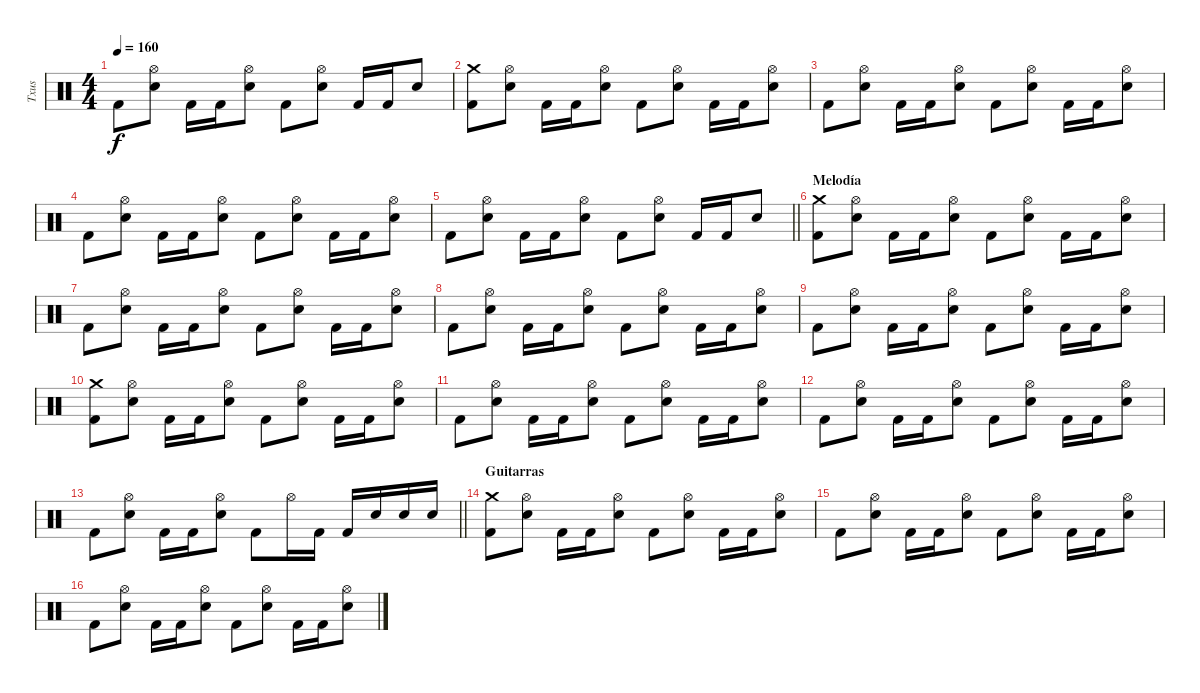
\track ("Txus" "Txus") {instrument percussion}
\staff {score}
\articulation defaults
\ts (4 4)
\tempo 160
\clef neutral
\ks c "Kick (hit) 2".8{dy f}
("Hi-Hat (open)" "Snare (hit) 2").8 "Kick (hit) 2".16 "Kick (hit) 2".16 ("Hi-Hat (open)" "Snare (hit) 2").8 "Kick (hit) 2".8 ("Hi-Hat (open)" "Snare (hit) 2").8 "Kick (hit) 2".16 "Kick (hit) 2".16 "Snare (hit) 2".8 |
("Crash medium (hit)" "Kick (hit) 2").8 ("Hi-Hat (open)" "Snare (hit) 2").8 "Kick (hit) 2".16 "Kick (hit) 2".16 ("Hi-Hat (open)" "Snare (hit) 2").8 "Kick (hit) 2".8 ("Hi-Hat (open)" "Snare (hit) 2").8 "Kick (hit) 2".16 "Kick (hit) 2".16 ("Hi-Hat (open)" "Snare (hit) 2").8 |
"Kick (hit) 2".8 ("Hi-Hat (open)" "Snare (hit) 2").8 "Kick (hit) 2".16 "Kick (hit) 2".16 ("Hi-Hat (open)" "Snare (hit) 2").8 "Kick (hit) 2".8 ("Hi-Hat (open)" "Snare (hit) 2").8 "Kick (hit) 2".16 "Kick (hit) 2".16 ("Hi-Hat (open)" "Snare (hit) 2").8 |
"Kick (hit) 2".8 ("Hi-Hat (open)" "Snare (hit) 2").8 "Kick (hit) 2".16 "Kick (hit) 2".16 ("Hi-Hat (open)" "Snare (hit) 2").8 "Kick (hit) 2".8 ("Hi-Hat (open)" "Snare (hit) 2").8 "Kick (hit) 2".16 "Kick (hit) 2".16 ("Hi-Hat (open)" "Snare (hit) 2").8 |
\barLineRight lightlight "Kick (hit) 2".8
("Hi-Hat (open)" "Snare (hit) 2").8 "Kick (hit) 2".16 "Kick (hit) 2".16 ("Hi-Hat (open)" "Snare (hit) 2").8 "Kick (hit) 2".8 ("Hi-Hat (open)" "Snare (hit) 2").8 "Kick (hit) 2".16 "Kick (hit) 2".16 "Snare (hit) 2".8 |
\section ("" "Melodía")
("Crash medium (hit)" "Kick (hit) 2").8 ("Hi-Hat (open)" "Snare (hit) 2").8 "Kick (hit) 2".16 "Kick (hit) 2".16 ("Hi-Hat (open)" "Snare (hit) 2").8 "Kick (hit) 2".8 ("Hi-Hat (open)" "Snare (hit) 2").8 "Kick (hit) 2".16 "Kick (hit) 2".16 ("Hi-Hat (open)" "Snare (hit) 2").8 |
"Kick (hit) 2".8 ("Hi-Hat (open)" "Snare (hit) 2").8 "Kick (hit) 2".16 "Kick (hit) 2".16 ("Hi-Hat (open)" "Snare (hit) 2").8 "Kick (hit) 2".8 ("Hi-Hat (open)" "Snare (hit) 2").8 "Kick (hit) 2".16 "Kick (hit) 2".16 ("Hi-Hat (open)" "Snare (hit) 2").8 |
"Kick (hit) 2".8 ("Hi-Hat (open)" "Snare (hit) 2").8 "Kick (hit) 2".16 "Kick (hit) 2".16 ("Hi-Hat (open)" "Snare (hit) 2").8 "Kick (hit) 2".8 ("Hi-Hat (open)" "Snare (hit) 2").8 "Kick (hit) 2".16 "Kick (hit) 2".16 ("Hi-Hat (open)" "Snare (hit) 2").8 |
"Kick (hit) 2".8 ("Hi-Hat (open)" "Snare (hit) 2").8 "Kick (hit) 2".16 "Kick (hit) 2".16 ("Hi-Hat (open)" "Snare (hit) 2").8 "Kick (hit) 2".8 ("Hi-Hat (open)" "Snare (hit) 2").8 "Kick (hit) 2".16 "Kick (hit) 2".16 ("Hi-Hat (open)" "Snare (hit) 2").8 |
("Crash medium (hit)" "Kick (hit) 2").8 ("Hi-Hat (open)" "Snare (hit) 2").8 "Kick (hit) 2".16 "Kick (hit) 2".16 ("Hi-Hat (open)" "Snare (hit) 2").8 "Kick (hit) 2".8 ("Hi-Hat (open)" "Snare (hit) 2").8 "Kick (hit) 2".16 "Kick (hit) 2".16 ("Hi-Hat (open)" "Snare (hit) 2").8 |
"Kick (hit) 2".8 ("Hi-Hat (open)" "Snare (hit) 2").8 "Kick (hit) 2".16 "Kick (hit) 2".16 ("Hi-Hat (open)" "Snare (hit) 2").8 "Kick (hit) 2".8 ("Hi-Hat (open)" "Snare (hit) 2").8 "Kick (hit) 2".16 "Kick (hit) 2".16 ("Hi-Hat (open)" "Snare (hit) 2").8 |
"Kick (hit) 2".8 ("Hi-Hat (open)" "Snare (hit) 2").8 "Kick (hit) 2".16 "Kick (hit) 2".16 ("Hi-Hat (open)" "Snare (hit) 2").8 "Kick (hit) 2".8 ("Hi-Hat (open)" "Snare (hit) 2").8 "Kick (hit) 2".16 "Kick (hit) 2".16 ("Hi-Hat (open)" "Snare (hit) 2").8 |
\barLineRight lightlight "Kick (hit) 2".8
("Hi-Hat (open)" "Snare (hit) 2").8 "Kick (hit) 2".16 "Kick (hit) 2".16 ("Hi-Hat (open)" "Snare (hit) 2").8 "Kick (hit) 2".8 "Hi-Hat (open)".16 "Kick (hit) 2".16 "Kick (hit) 2".16 "Snare (hit) 2".16 "Snare (hit) 2".16 "Snare (hit) 2".16 |
\section ("" "Guitarras")
("Crash medium (hit)" "Kick (hit) 2").8 ("Hi-Hat (open)" "Snare (hit) 2").8 "Kick (hit) 2".16 "Kick (hit) 2".16 ("Hi-Hat (open)" "Snare (hit) 2").8 "Kick (hit) 2".8 ("Hi-Hat (open)" "Snare (hit) 2").8 "Kick (hit) 2".16 "Kick (hit) 2".16 ("Hi-Hat (open)" "Snare (hit) 2").8 |
"Kick (hit) 2".8 ("Hi-Hat (open)" "Snare (hit) 2").8 "Kick (hit) 2".16 "Kick (hit) 2".16 ("Hi-Hat (open)" "Snare (hit) 2").8 "Kick (hit) 2".8 ("Hi-Hat (open)" "Snare (hit) 2").8 "Kick (hit) 2".16 "Kick (hit) 2".16 ("Hi-Hat (open)" "Snare (hit) 2").8 |
"Kick (hit) 2".8 ("Hi-Hat (open)" "Snare (hit) 2").8 "Kick (hit) 2".16 "Kick (hit) 2".16 ("Hi-Hat (open)" "Snare (hit) 2").8 "Kick (hit) 2".8 ("Hi-Hat (open)" "Snare (hit) 2").8 "Kick (hit) 2".16 "Kick (hit) 2".16 ("Hi-Hat (open)" "Snare (hit) 2").8
